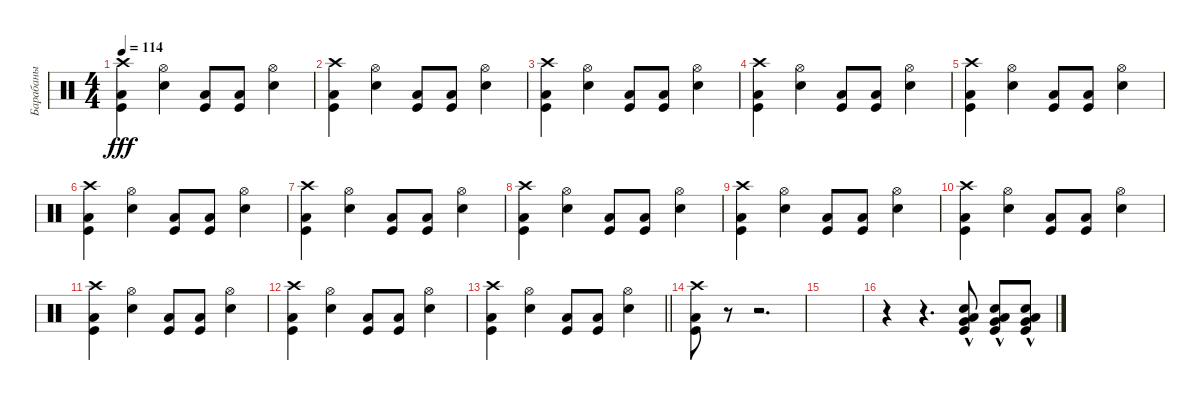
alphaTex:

\track ("Барабаны" "Барабаны") {instrument percussion}
\staff {score}
\articulation defaults
\ts (4 4)
\tempo 114
\clef neutral
\ks c
("Low Floor Tom (hit)" "Kick (hit)" "Crash high (hit)").4{dy fff} ("Electric Snare (hit)" "Hi-Hat (open)").4 ("Low Floor Tom (hit)" "Kick (hit)").8 ("Low Floor Tom (hit)" "Kick (hit)").8 ("Electric Snare (hit)" "Hi-Hat (open)").4 |
("Low Floor Tom (hit)" "Kick (hit)" "Crash high (hit)").4 ("Electric Snare (hit)" "Hi-Hat (open)").4 ("Low Floor Tom (hit)" "Kick (hit)").8 ("Low Floor Tom (hit)" "Kick (hit)").8 ("Electric Snare (hit)" "Hi-Hat (open)").4 |
("Low Floor Tom (hit)" "Kick (hit)" "Crash high (hit)").4 ("Electric Snare (hit)" "Hi-Hat (open)").4 ("Low Floor Tom (hit)" "Kick (hit)").8 ("Low Floor Tom (hit)" "Kick (hit)").8 ("Electric Snare (hit)" "Hi-Hat (open)").4 |
("Low Floor Tom (hit)" "Kick (hit)" "Crash high (hit)").4 ("Electric Snare (hit)" "Hi-Hat (open)").4 ("Low Floor Tom (hit)" "Kick (hit)").8 ("Low Floor Tom (hit)" "Kick (hit)").8 ("Electric Snare (hit)" "Hi-Hat (open)").4 |
("Low Floor Tom (hit)" "Kick (hit)" "Crash high (hit)").4 ("Electric Snare (hit)" "Hi-Hat (open)").4 ("Low Floor Tom (hit)" "Kick (hit)").8 ("Low Floor Tom (hit)" "Kick (hit)").8 ("Electric Snare (hit)" "Hi-Hat (open)").4 |
("Low Floor Tom (hit)" "Kick (hit)" "Crash high (hit)").4 ("Electric Snare (hit)" "Hi-Hat (open)").4 ("Low Floor Tom (hit)" "Kick (hit)").8 ("Low Floor Tom (hit)" "Kick (hit)").8 ("Electric Snare (hit)" "Hi-Hat (open)").4 |
("Low Floor Tom (hit)" "Kick (hit)" "Crash high (hit)").4 ("Electric Snare (hit)" "Hi-Hat (open)").4 ("Low Floor Tom (hit)" "Kick (hit)").8 ("Low Floor Tom (hit)" "Kick (hit)").8 ("Electric Snare (hit)" "Hi-Hat (open)").4 |
("Low Floor Tom (hit)" "Kick (hit)" "Crash high (hit)").4 ("Electric Snare (hit)" "Hi-Hat (open)").4 ("Low Floor Tom (hit)" "Kick (hit)").8 ("Low Floor Tom (hit)" "Kick (hit)").8 ("Electric Snare (hit)" "Hi-Hat (open)").4 |
("Low Floor Tom (hit)" "Kick (hit)" "Crash high (hit)").4 ("Electric Snare (hit)" "Hi-Hat (open)").4 ("Low Floor Tom (hit)" "Kick (hit)").8 ("Low Floor Tom (hit)" "Kick (hit)").8 ("Electric Snare (hit)" "Hi-Hat (open)").4 |
("Low Floor Tom (hit)" "Kick (hit)" "Crash high (hit)").4 ("Electric Snare (hit)" "Hi-Hat (open)").4 ("Low Floor Tom (hit)" "Kick (hit)").8 ("Low Floor Tom (hit)" "Kick (hit)").8 ("Electric Snare (hit)" "Hi-Hat (open)").4 |
("Low Floor Tom (hit)" "Kick (hit)" "Crash high (hit)").4 ("Electric Snare (hit)" "Hi-Hat (open)").4 ("Low Floor Tom (hit)" "Kick (hit)").8 ("Low Floor Tom (hit)" "Kick (hit)").8 ("Electric Snare (hit)" "Hi-Hat (open)").4 |
("Low Floor Tom (hit)" "Kick (hit)" "Crash high (hit)").4 ("Electric Snare (hit)" "Hi-Hat (open)").4 ("Low Floor Tom (hit)" "Kick (hit)").8 ("Low Floor Tom (hit)" "Kick (hit)").8 ("Electric Snare (hit)" "Hi-Hat (open)").4 |
\barLineRight lightlight
("Low Floor Tom (hit)" "Kick (hit)" "Crash high (hit)").4 ("Electric Snare (hit)" "Hi-Hat (open)").4 ("Low Floor Tom (hit)" "Kick (hit)").8 ("Low Floor Tom (hit)" "Kick (hit)").8 ("Electric Snare (hit)" "Hi-Hat (open)").4 |
("Low Floor Tom (hit)" "Kick (hit)" "Crash high (hit)").8 r.8 r.2{d} |
|
r.4 r.4{d} ("Low Floor Tom (hit)"{hac} "Kick (hit)" "Very Low Tom (hit)" "Electric Snare (hit)").8 ("Low Floor Tom (hit)"{hac} "Kick (hit)" "Very Low Tom (hit)" "Electric Snare (hit)").8 ("Low Floor Tom (hit)"{hac} "Kick (hit)" "Very Low Tom (hit)" "Electric Snare (hit)").8
